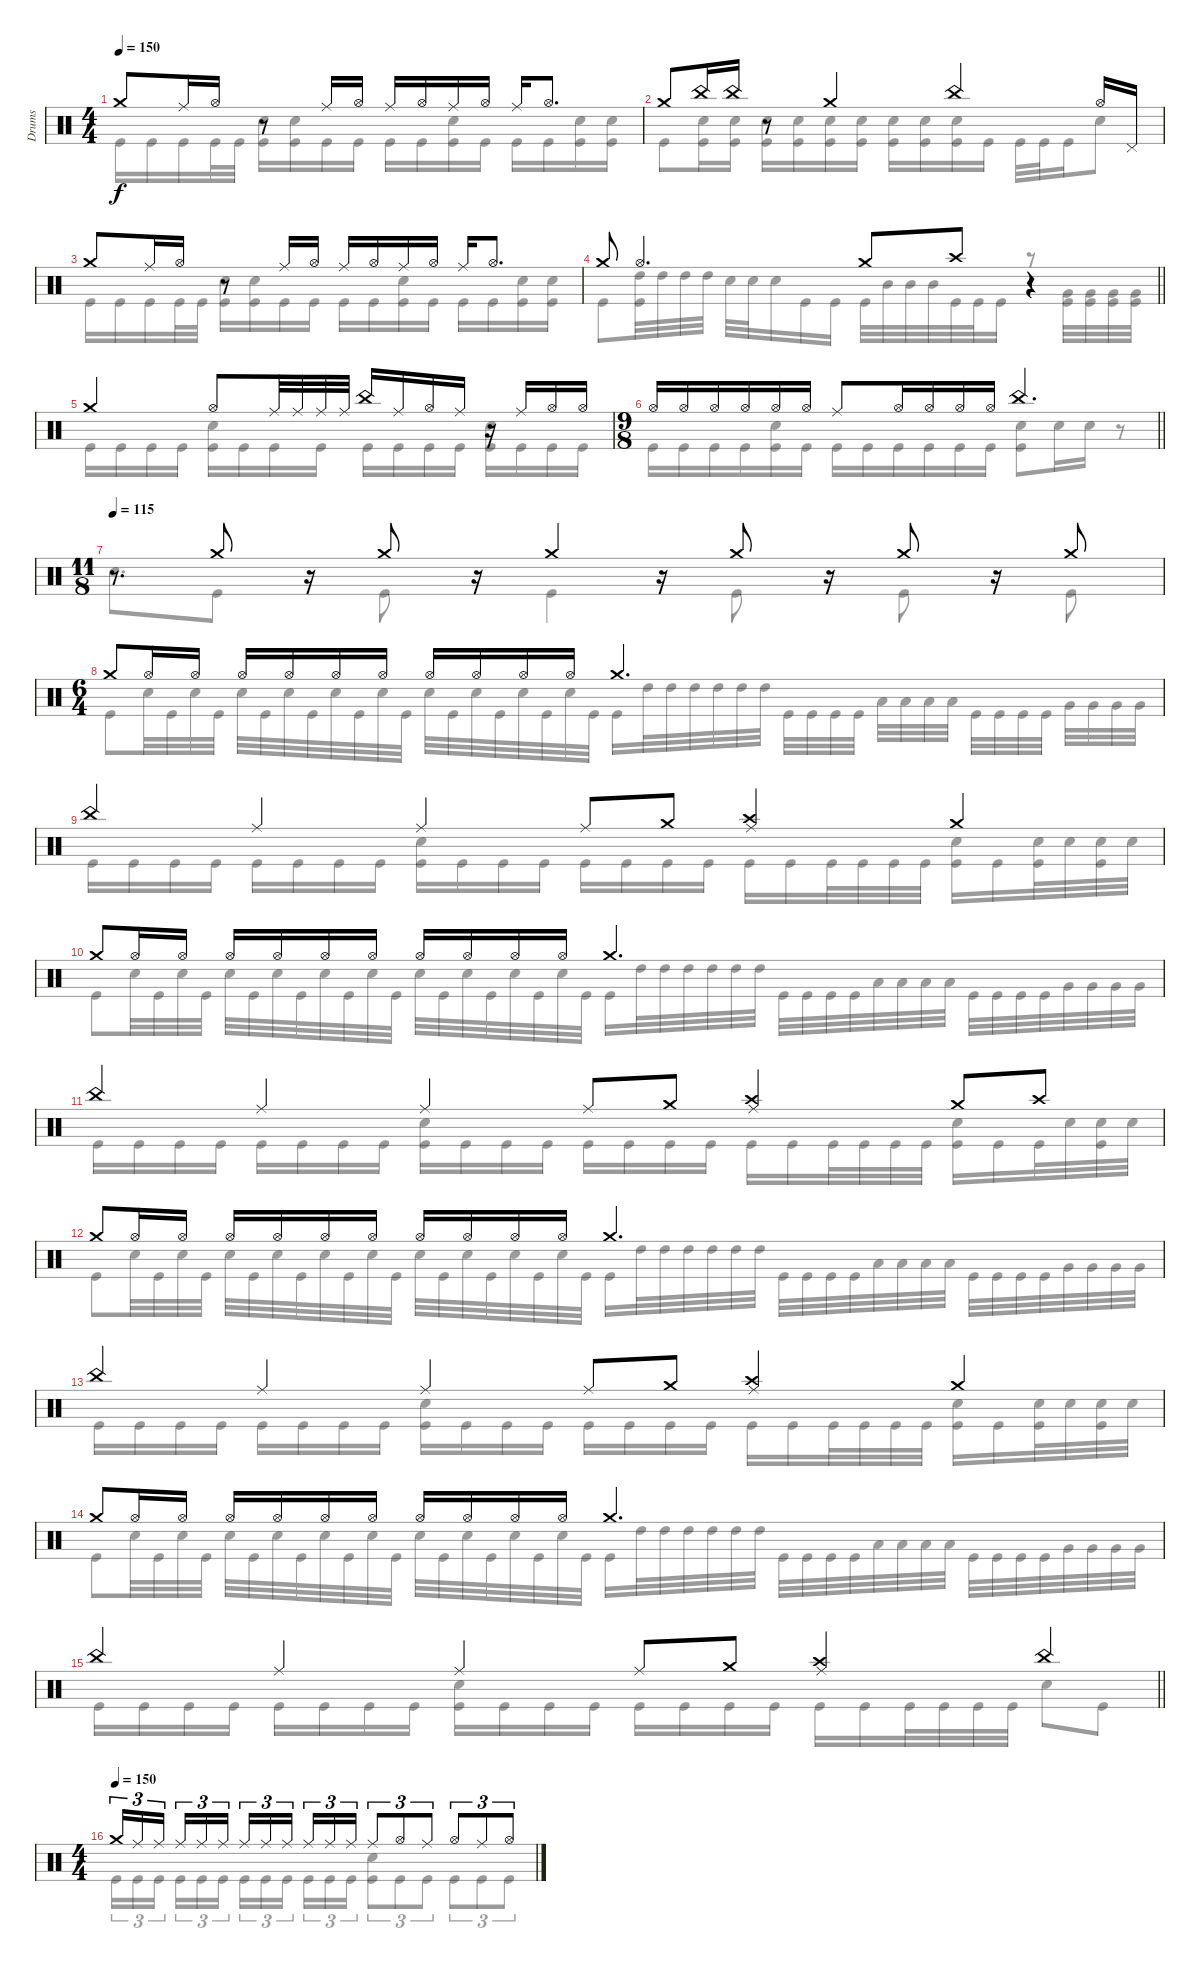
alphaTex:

\track ("Drums" "Drums") {instrument percussion}
\staff {score}
\articulation defaults
\voice
\ts (4 4)
\tempo 150
\clef neutral
\ks c "Crash medium (hit)".8{dy f} "Ride (middle)".16 "Hi-Hat (open)".16
r.8 "Ride (middle)".16 "Hi-Hat (open)".16 "Ride (middle)".16 "Hi-Hat (open)".16 "Ride (middle)".16 "Hi-Hat (open)".16 "Ride (middle)".16 "Hi-Hat (open)".8{d} |
"Crash medium (hit)".8 "China (hit)".16 "China (hit)".16 r.8 "Crash medium (hit)".4 "China (hit)".4 "Hi-Hat (open)".16 "Pedal Hi-Hat (hit)".16 |
"Crash medium (hit)".8 "Ride (middle)".16 "Hi-Hat (open)".16 r.8 "Ride (middle)".16 "Hi-Hat (open)".16 "Ride (middle)".16 "Hi-Hat (open)".16 "Ride (middle)".16 "Hi-Hat (open)".16 "Ride (middle)".16 "Hi-Hat (open)".8{d} |
\barLineRight lightlight "Crash medium (hit)".8 "Hi-Hat (open)".4{d} "Crash medium (hit)".8 "Crash high (hit)".8
r.4 |
\section ("" "")
"Crash medium (hit)".4 "Hi-Hat (open)".8 "Ride (middle)".32 "Ride (middle)".32 "Ride (middle)".32 "Ride (middle)".32 "China (hit)".16 "Ride (middle)".16 "Hi-Hat (open)".16 "Ride (middle)".16 r.16 "Ride (middle)".16 "Hi-Hat (open)".16 "Hi-Hat (open)".16 |
\ts (9 8)
\barLineRight lightlight "Hi-Hat (open)".16 "Hi-Hat (open)".16 "Hi-Hat (open)".16 "Hi-Hat (open)".16 "Hi-Hat (open)".16 "Hi-Hat (open)".16 "Ride (middle)".8 "Hi-Hat (open)".16 "Hi-Hat (open)".16 "Hi-Hat (open)".16 "Hi-Hat (open)".16 "China (hit)".4{d}
|
\ts (11 8)
\section ("" "")
\tempo 115
r.8{d} "Crash medium (hit)".8 r.16 "Crash medium (hit)".8 r.16 "Crash medium (hit)".4 r.16 "Crash medium (hit)".8 r.16 "Crash medium (hit)".8 r.16 "Crash medium (hit)".8 |
\ts (6 4)
"Crash medium (hit)".8 "Hi-Hat (open)".16 "Hi-Hat (open)".16 "Hi-Hat (open)".16 "Hi-Hat (open)".16 "Hi-Hat (open)".16 "Hi-Hat (open)".16 "Hi-Hat (open)".16 "Hi-Hat (open)".16 "Hi-Hat (open)".16 "Hi-Hat (open)".16 "Crash medium (hit)".2{d} |
"China (hit)".4 "Ride (middle)".4 "Ride (middle)".4 "Ride (middle)".8 "Crash medium (hit)".8 ("Ride (middle)" "Crash high (hit)").4 "Crash medium (hit)".4 |
"Crash medium (hit)".8 "Hi-Hat (open)".16 "Hi-Hat (open)".16 "Hi-Hat (open)".16 "Hi-Hat (open)".16 "Hi-Hat (open)".16 "Hi-Hat (open)".16 "Hi-Hat (open)".16 "Hi-Hat (open)".16 "Hi-Hat (open)".16 "Hi-Hat (open)".16 "Crash medium (hit)".2{d} |
"China (hit)".4 "Ride (middle)".4 "Ride (middle)".4 "Ride (middle)".8 "Crash medium (hit)".8 ("Ride (middle)" "Crash high (hit)").4 "Crash medium (hit)".8 "Crash high (hit)".8 |
"Crash medium (hit)".8 "Hi-Hat (open)".16 "Hi-Hat (open)".16 "Hi-Hat (open)".16 "Hi-Hat (open)".16 "Hi-Hat (open)".16 "Hi-Hat (open)".16 "Hi-Hat (open)".16 "Hi-Hat (open)".16 "Hi-Hat (open)".16 "Hi-Hat (open)".16 "Crash medium (hit)".2{d} |
"China (hit)".4 "Ride (middle)".4 "Ride (middle)".4 "Ride (middle)".8 "Crash medium (hit)".8 ("Ride (middle)" "Crash high (hit)").4 "Crash medium (hit)".4 |
"Crash medium (hit)".8 "Hi-Hat (open)".16 "Hi-Hat (open)".16 "Hi-Hat (open)".16 "Hi-Hat (open)".16 "Hi-Hat (open)".16 "Hi-Hat (open)".16 "Hi-Hat (open)".16 "Hi-Hat (open)".16 "Hi-Hat (open)".16 "Hi-Hat (open)".16 "Crash medium (hit)".2{d} |
\barLineRight lightlight "China (hit)".4 "Ride (middle)".4 "Ride (middle)".4 "Ride (middle)".8 "Crash medium (hit)".8
("Ride (middle)" "Crash high (hit)").4 "China (hit)".4 |
\ts (4 4)
\tempo (150)
"Crash medium (hit)".16{tu (3 2)} "Ride (middle)".16{tu (3 2)} "Ride (middle)".16{tu (3 2) beam splitsecondary} "Ride (middle)".16{tu (3 2)} "Ride (middle)".16{tu (3 2)} "Ride (middle)".16{tu (3 2)} "Ride (middle)".16{tu (3 2)} "Ride (middle)".16{tu (3 2)} "Ride (middle)".16{tu (3 2) beam splitsecondary} "Ride (middle)".16{tu (3 2)} "Ride (middle)".16{tu (3 2)} "Ride (middle)".16{tu (3 2)} "Ride (middle)".8{tu (3 2)} "Hi-Hat (open)".8{tu (3 2)} "Ride (middle)".8{tu (3 2)} "Hi-Hat (open)".8{tu (3 2)} "Ride (middle)".8{tu (3 2)} "Hi-Hat (open)".8{tu (3 2)}
\voice
\clef neutral
\ottava regular
\simile none
\ks c "Kick (hit)".16{dy f} "Kick (hit)".16 "Kick (hit)".16 "Kick (hit)".32 "Kick (hit)".32
("Snare (hit) 2" "Kick (hit)").16 ("Snare (hit) 2" "Kick (hit)").16 "Kick (hit)".16 "Kick (hit)".16 "Kick (hit)".16 "Kick (hit)".16 ("Snare (hit) 2" "Kick (hit)").16 "Kick (hit)".16 "Kick (hit)".16 "Kick (hit)".16 ("Snare (hit) 2" "Kick (hit)").16 ("Snare (hit) 2" "Kick (hit)").16 |
"Kick (hit)".8 ("Snare (hit) 2" "Kick (hit)").16 ("Snare (hit) 2" "Kick (hit)").16 ("Snare (hit) 2" "Kick (hit)").16 ("Snare (hit) 2" "Kick (hit)").16 ("Snare (hit) 2" "Kick (hit)").16 ("Snare (hit) 2" "Kick (hit)").16 ("Snare (hit) 2" "Kick (hit)").16 ("Snare (hit) 2" "Kick (hit)").16 ("Snare (hit) 2" "Kick (hit)").16 "Kick (hit)".16 "Kick (hit)".32 "Kick (hit)".32 "Kick (hit)".16 "Snare (hit) 2".8 |
"Kick (hit)".16 "Kick (hit)".16 "Kick (hit)".16 "Kick (hit)".32 "Kick (hit)".32 ("Snare (hit) 2" "Kick (hit)").16 ("Snare (hit) 2" "Kick (hit)").16 "Kick (hit)".16 "Kick (hit)".16 "Kick (hit)".16 "Kick (hit)".16 ("Snare (hit) 2" "Kick (hit)").16 "Kick (hit)".16 "Kick (hit)".16 "Kick (hit)".16 ("Snare (hit) 2" "Kick (hit)").16 ("Snare (hit) 2" "Kick (hit)").16 |
\barLineRight lightlight "Kick (hit)".8
("High Tom (hit)" "Kick (hit)").32 "High Tom (hit)".32 "High Tom (hit)".32 "High Tom (hit)".32 "Snare (hit) 2".32 "Snare (hit) 2".32 "Snare (hit) 2".16 "Kick (hit)".16 "Kick (hit)".16 "Kick (hit)".32 "Mid Tom (hit)".32 "Mid Tom (hit)".32 "Mid Tom (hit)".32 "Kick (hit)".32 "Kick (hit)".32 "Kick (hit)".16 r.8 ("Very Low Tom (hit)" "Kick (hit)").32 ("Very Low Tom (hit)" "Kick (hit)").32 ("Very Low Tom (hit)" "Kick (hit)").32 ("Very Low Tom (hit)" "Kick (hit)").32 |
"Kick (hit)".16 "Kick (hit)".16 "Kick (hit)".16 "Kick (hit)".16 ("Snare (hit) 2" "Kick (hit)").16 "Kick (hit)".16 "Kick (hit)".16 "Kick (hit)".16 "Kick (hit)".16 "Kick (hit)".16 "Kick (hit)".16 "Kick (hit)".16 ("Snare (hit) 2" "Kick (hit)").16 "Kick (hit)".16 "Kick (hit)".16 "Kick (hit)".16 |
\barLineRight lightlight "Kick (hit)".16 "Kick (hit)".16 "Kick (hit)".16 "Kick (hit)".16
("Snare (hit) 2" "Kick (hit)").16 "Kick (hit)".16 "Kick (hit)".16 "Kick (hit)".16 "Kick (hit)".16 "Kick (hit)".16 "Kick (hit)".16 "Kick (hit)".16 ("Snare (hit) 2" "Kick (hit)").8 "Snare (hit) 2".16 "Snare (hit) 2".16 r.8 |
"Snare (hit) 2".8{d} "Kick (hit)".8 r.16 "Kick (hit)".8 r.16 "Kick (hit)".4 r.16 "Kick (hit)".8 r.16 "Kick (hit)".8 r.16 "Kick (hit)".8 |
"Kick (hit)".8 "Snare (hit) 2".32 "Kick (hit)".32 "Snare (hit) 2".32 "Kick (hit)".32 "Snare (hit) 2".32 "Kick (hit)".32 "Snare (hit) 2".32 "Kick (hit)".32 "Snare (hit) 2".32 "Kick (hit)".32 "Snare (hit) 2".32 "Kick (hit)".32 "Snare (hit) 2".32 "Kick (hit)".32 "Snare (hit) 2".32 "Kick (hit)".32 "Snare (hit) 2".32 "Kick (hit)".32 "Snare (hit) 2".32 "Kick (hit)".32 "Kick (hit)".16 "High Tom (hit)".32 "High Tom (hit)".32 "High Tom (hit)".32 "High Tom (hit)".32 "High Tom (hit)".32 "High Tom (hit)".32{beam split} "Kick (hit)".32 "Kick (hit)".32 "Kick (hit)".32 "Kick (hit)".32{beam split} "Low Tom (hit)".32 "Low Tom (hit)".32 "Low Tom (hit)".32 "Low Tom (hit)".32{beam split} "Kick (hit)".32 "Kick (hit)".32 "Kick (hit)".32 "Kick (hit)".32{beam split} "Very Low Tom (hit)".32 "Very Low Tom (hit)".32 "Very Low Tom (hit)".32 "Very Low Tom (hit)".32 |
"Kick (hit)".16 "Kick (hit)".16 "Kick (hit)".16 "Kick (hit)".16{beam split} "Kick (hit)".16 "Kick (hit)".16 "Kick (hit)".16 "Kick (hit)".16{beam split} ("Snare (hit) 2" "Kick (hit)").16 "Kick (hit)".16 "Kick (hit)".16 "Kick (hit)".16 "Kick (hit)".16 "Kick (hit)".16 "Kick (hit)".16 "Kick (hit)".16{beam split} "Kick (hit)".16 "Kick (hit)".16 "Kick (hit)".32 "Kick (hit)".32 "Kick (hit)".32 "Kick (hit)".32{beam split} ("Snare (hit) 2" "Kick (hit)").16 "Kick (hit)".16 ("Snare (hit) 2" "Kick (hit)").32 "Snare (hit) 2".32 ("Snare (hit) 2" "Kick (hit)").32 "Snare (hit) 2".32 |
"Kick (hit)".8 "Snare (hit) 2".32 "Kick (hit)".32 "Snare (hit) 2".32 "Kick (hit)".32 "Snare (hit) 2".32 "Kick (hit)".32 "Snare (hit) 2".32 "Kick (hit)".32 "Snare (hit) 2".32 "Kick (hit)".32 "Snare (hit) 2".32 "Kick (hit)".32 "Snare (hit) 2".32 "Kick (hit)".32 "Snare (hit) 2".32 "Kick (hit)".32 "Snare (hit) 2".32 "Kick (hit)".32 "Snare (hit) 2".32 "Kick (hit)".32 "Kick (hit)".16 "High Tom (hit)".32 "High Tom (hit)".32 "High Tom (hit)".32 "High Tom (hit)".32 "High Tom (hit)".32 "High Tom (hit)".32 "Kick (hit)".32 "Kick (hit)".32 "Kick (hit)".32 "Kick (hit)".32 "Low Tom (hit)".32 "Low Tom (hit)".32 "Low Tom (hit)".32 "Low Tom (hit)".32 "Kick (hit)".32 "Kick (hit)".32 "Kick (hit)".32 "Kick (hit)".32 "Very Low Tom (hit)".32 "Very Low Tom (hit)".32 "Very Low Tom (hit)".32 "Very Low Tom (hit)".32 |
"Kick (hit)".16 "Kick (hit)".16 "Kick (hit)".16 "Kick (hit)".16{beam split} "Kick (hit)".16 "Kick (hit)".16 "Kick (hit)".16 "Kick (hit)".16{beam split} ("Snare (hit) 2" "Kick (hit)").16 "Kick (hit)".16 "Kick (hit)".16 "Kick (hit)".16 "Kick (hit)".16 "Kick (hit)".16 "Kick (hit)".16 "Kick (hit)".16{beam split} "Kick (hit)".16 "Kick (hit)".16 "Kick (hit)".32 "Kick (hit)".32 "Kick (hit)".32 "Kick (hit)".32 ("Snare (hit) 2" "Kick (hit)").16 "Kick (hit)".16 "Kick (hit)".32 "Snare (hit) 2".32 ("Snare (hit) 2" "Kick (hit)").32 "Snare (hit) 2".32 |
"Kick (hit)".8 "Snare (hit) 2".32 "Kick (hit)".32 "Snare (hit) 2".32 "Kick (hit)".32 "Snare (hit) 2".32 "Kick (hit)".32 "Snare (hit) 2".32 "Kick (hit)".32 "Snare (hit) 2".32 "Kick (hit)".32 "Snare (hit) 2".32 "Kick (hit)".32 "Snare (hit) 2".32 "Kick (hit)".32 "Snare (hit) 2".32 "Kick (hit)".32 "Snare (hit) 2".32 "Kick (hit)".32 "Snare (hit) 2".32 "Kick (hit)".32 "Kick (hit)".16 "High Tom (hit)".32 "High Tom (hit)".32 "High Tom (hit)".32 "High Tom (hit)".32 "High Tom (hit)".32 "High Tom (hit)".32 "Kick (hit)".32 "Kick (hit)".32 "Kick (hit)".32 "Kick (hit)".32 "Low Tom (hit)".32 "Low Tom (hit)".32 "Low Tom (hit)".32 "Low Tom (hit)".32 "Kick (hit)".32 "Kick (hit)".32 "Kick (hit)".32 "Kick (hit)".32 "Very Low Tom (hit)".32 "Very Low Tom (hit)".32 "Very Low Tom (hit)".32 "Very Low Tom (hit)".32 |
"Kick (hit)".16 "Kick (hit)".16 "Kick (hit)".16 "Kick (hit)".16{beam split} "Kick (hit)".16 "Kick (hit)".16 "Kick (hit)".16 "Kick (hit)".16{beam split} ("Snare (hit) 2" "Kick (hit)").16 "Kick (hit)".16 "Kick (hit)".16 "Kick (hit)".16 "Kick (hit)".16 "Kick (hit)".16 "Kick (hit)".16 "Kick (hit)".16{beam split} "Kick (hit)".16 "Kick (hit)".16 "Kick (hit)".32 "Kick (hit)".32 "Kick (hit)".32 "Kick (hit)".32{beam split} ("Snare (hit) 2" "Kick (hit)").16 "Kick (hit)".16 ("Snare (hit) 2" "Kick (hit)").32 "Snare (hit) 2".32 ("Snare (hit) 2" "Kick (hit)").32 "Snare (hit) 2".32 |
"Kick (hit)".8 "Snare (hit) 2".32 "Kick (hit)".32 "Snare (hit) 2".32 "Kick (hit)".32 "Snare (hit) 2".32 "Kick (hit)".32 "Snare (hit) 2".32 "Kick (hit)".32 "Snare (hit) 2".32 "Kick (hit)".32 "Snare (hit) 2".32 "Kick (hit)".32 "Snare (hit) 2".32 "Kick (hit)".32 "Snare (hit) 2".32 "Kick (hit)".32 "Snare (hit) 2".32 "Kick (hit)".32 "Snare (hit) 2".32 "Kick (hit)".32 "Kick (hit)".16 "High Tom (hit)".32 "High Tom (hit)".32 "High Tom (hit)".32 "High Tom (hit)".32 "High Tom (hit)".32 "High Tom (hit)".32 "Kick (hit)".32 "Kick (hit)".32 "Kick (hit)".32 "Kick (hit)".32 "Low Tom (hit)".32 "Low Tom (hit)".32 "Low Tom (hit)".32 "Low Tom (hit)".32 "Kick (hit)".32 "Kick (hit)".32 "Kick (hit)".32 "Kick (hit)".32 "Very Low Tom (hit)".32 "Very Low Tom (hit)".32 "Very Low Tom (hit)".32 "Very Low Tom (hit)".32 |
\barLineRight lightlight "Kick (hit)".16 "Kick (hit)".16 "Kick (hit)".16 "Kick (hit)".16{beam split} "Kick (hit)".16 "Kick (hit)".16 "Kick (hit)".16 "Kick (hit)".16{beam split}
("Snare (hit) 2" "Kick (hit)").16 "Kick (hit)".16 "Kick (hit)".16 "Kick (hit)".16 "Kick (hit)".16 "Kick (hit)".16 "Kick (hit)".16 "Kick (hit)".16{beam split} "Kick (hit)".16 "Kick (hit)".16 "Kick (hit)".32 "Kick (hit)".32 "Kick (hit)".32 "Kick (hit)".32{beam split} "Snare (hit) 2".8 "Kick (hit)".8 |
"Kick (hit)".16{tu (3 2)} "Kick (hit)".16{tu (3 2)} "Kick (hit)".16{tu (3 2) beam splitsecondary} "Kick (hit)".16{tu (3 2)} "Kick (hit)".16{tu (3 2)} "Kick (hit)".16{tu (3 2)} "Kick (hit)".16{tu (3 2)} "Kick (hit)".16{tu (3 2)} "Kick (hit)".16{tu (3 2) beam splitsecondary} "Kick (hit)".16{tu (3 2)} "Kick (hit)".16{tu (3 2)} "Kick (hit)".16{tu (3 2)} ("Snare (hit) 2" "Kick (hit)").8{tu (3 2)} "Kick (hit)".8{tu (3 2)} "Kick (hit)".8{tu (3 2)} "Kick (hit)".8{tu (3 2)} "Kick (hit)".8{tu (3 2)} "Kick (hit)".8{tu (3 2)}
